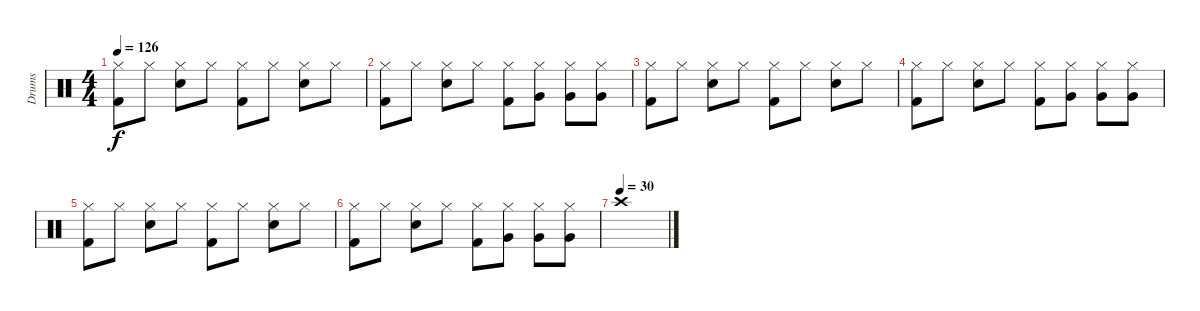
\track ("Drums" "Drums") {instrument percussion}
\staff {score}
\articulation defaults
\ts (4 4)
\tempo 126
\clef neutral
\ks c
("Kick (hit) 2" "Hi-Hat (closed)").8{dy f} "Hi-Hat (closed)".8 ("Snare (hit) 2" "Hi-Hat (closed)").8 "Hi-Hat (closed)".8 ("Kick (hit) 2" "Hi-Hat (closed)").8 "Hi-Hat (closed)".8 ("Snare (hit) 2" "Hi-Hat (closed)").8 "Hi-Hat (closed)".8 |
("Kick (hit) 2" "Hi-Hat (closed)").8 "Hi-Hat (closed)".8 ("Snare (hit) 2" "Hi-Hat (closed)").8 "Hi-Hat (closed)".8 ("Kick (hit) 2" "Hi-Hat (closed)").8 ("Very Low Tom (hit)" "Hi-Hat (closed)").8 ("Very Low Tom (hit)" "Hi-Hat (closed)").8 ("Very Low Tom (hit)" "Hi-Hat (closed)").8 |
("Kick (hit) 2" "Hi-Hat (closed)").8 "Hi-Hat (closed)".8 ("Snare (hit) 2" "Hi-Hat (closed)").8 "Hi-Hat (closed)".8 ("Kick (hit) 2" "Hi-Hat (closed)").8 "Hi-Hat (closed)".8 ("Snare (hit) 2" "Hi-Hat (closed)").8 "Hi-Hat (closed)".8 |
("Kick (hit) 2" "Hi-Hat (closed)").8 "Hi-Hat (closed)".8 ("Snare (hit) 2" "Hi-Hat (closed)").8 "Hi-Hat (closed)".8 ("Kick (hit) 2" "Hi-Hat (closed)").8 ("Very Low Tom (hit)" "Hi-Hat (closed)").8 ("Very Low Tom (hit)" "Hi-Hat (closed)").8 ("Very Low Tom (hit)" "Hi-Hat (closed)").8 |
("Kick (hit) 2" "Hi-Hat (closed)").8 "Hi-Hat (closed)".8 ("Snare (hit) 2" "Hi-Hat (closed)").8 "Hi-Hat (closed)".8 ("Kick (hit) 2" "Hi-Hat (closed)").8 "Hi-Hat (closed)".8 ("Snare (hit) 2" "Hi-Hat (closed)").8 "Hi-Hat (closed)".8 |
("Kick (hit) 2" "Hi-Hat (closed)").8 "Hi-Hat (closed)".8 ("Snare (hit) 2" "Hi-Hat (closed)").8 "Hi-Hat (closed)".8 ("Kick (hit) 2" "Hi-Hat (closed)").8 ("Very Low Tom (hit)" "Hi-Hat (closed)").8 ("Very Low Tom (hit)" "Hi-Hat (closed)").8 ("Very Low Tom (hit)" "Hi-Hat (closed)").8 |
\tempo (30)
"Crash high (hit)".1
